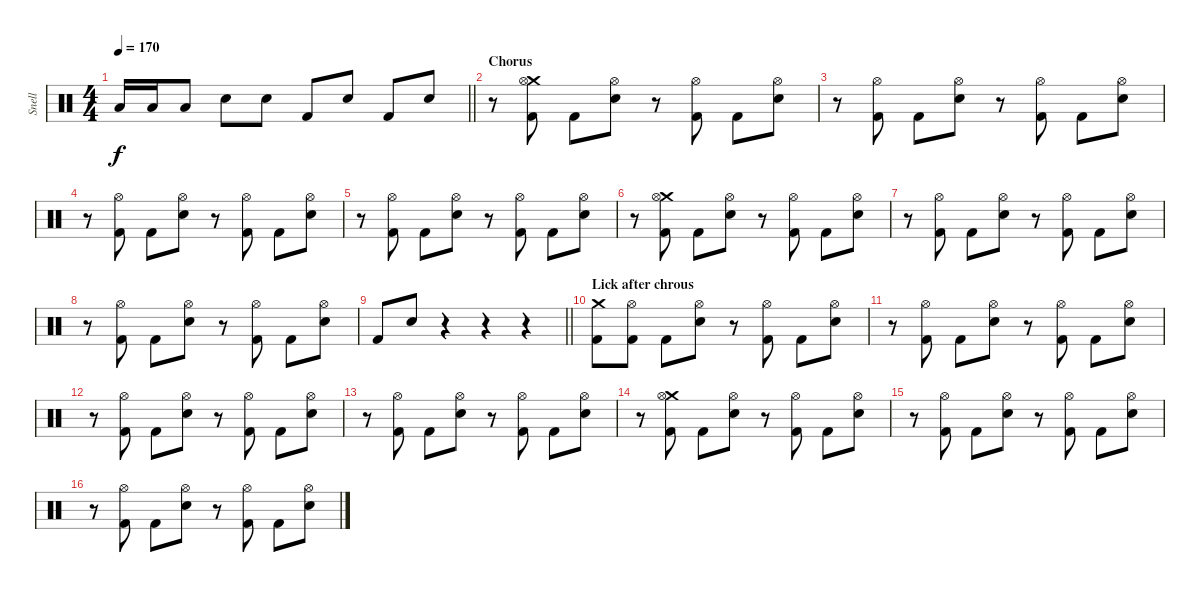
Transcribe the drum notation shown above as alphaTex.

\track ("Snell" "Snell") {instrument percussion}
\staff {score}
\articulation defaults
\ts (4 4)
\tempo 170
\clef neutral
\barLineRight lightlight
\ks c "Low Tom (hit)".16{dy f} "Low Tom (hit)".16 "Low Tom (hit)".8 "Electric Snare (hit)".8 "Electric Snare (hit)".8 "Kick (hit) 2".8 "Electric Snare (hit)".8 "Kick (hit) 2".8 "Electric Snare (hit)".8
|
\section ("" "Chorus")
r.8 ("Crash medium (hit)" "Hi-Hat (open)" "Kick (hit) 2").8 "Kick (hit) 2".8 ("Hi-Hat (open)" "Electric Snare (hit)").8 r.8 ("Hi-Hat (open)" "Kick (hit) 2").8 "Kick (hit) 2".8 ("Hi-Hat (open)" "Electric Snare (hit)").8 |
r.8 ("Hi-Hat (open)" "Kick (hit) 2").8 "Kick (hit) 2".8 ("Hi-Hat (open)" "Electric Snare (hit)").8 r.8 ("Hi-Hat (open)" "Kick (hit) 2").8 "Kick (hit) 2".8 ("Hi-Hat (open)" "Electric Snare (hit)").8 |
r.8 ("Hi-Hat (open)" "Kick (hit) 2").8 "Kick (hit) 2".8 ("Hi-Hat (open)" "Electric Snare (hit)").8 r.8 ("Hi-Hat (open)" "Kick (hit) 2").8 "Kick (hit) 2".8 ("Hi-Hat (open)" "Electric Snare (hit)").8 |
r.8 ("Hi-Hat (open)" "Kick (hit) 2").8 "Kick (hit) 2".8 ("Hi-Hat (open)" "Electric Snare (hit)").8 r.8 ("Hi-Hat (open)" "Kick (hit) 2").8 "Kick (hit) 2".8 ("Hi-Hat (open)" "Electric Snare (hit)").8 |
r.8 ("Crash medium (hit)" "Hi-Hat (open)" "Kick (hit) 2").8 "Kick (hit) 2".8 ("Hi-Hat (open)" "Electric Snare (hit)").8 r.8 ("Hi-Hat (open)" "Kick (hit) 2").8 "Kick (hit) 2".8 ("Hi-Hat (open)" "Electric Snare (hit)").8 |
r.8 ("Hi-Hat (open)" "Kick (hit) 2").8 "Kick (hit) 2".8 ("Hi-Hat (open)" "Electric Snare (hit)").8 r.8 ("Hi-Hat (open)" "Kick (hit) 2").8 "Kick (hit) 2".8 ("Hi-Hat (open)" "Electric Snare (hit)").8 |
r.8 ("Hi-Hat (open)" "Kick (hit) 2").8 "Kick (hit) 2".8 ("Hi-Hat (open)" "Electric Snare (hit)").8 r.8 ("Hi-Hat (open)" "Kick (hit) 2").8 "Kick (hit) 2".8 ("Hi-Hat (open)" "Electric Snare (hit)").8 |
\barLineRight lightlight "Kick (hit) 2".8 "Electric Snare (hit)".8
r.4 r.4 r.4 |
\section ("" "Lick after chrous")
("Crash medium (hit)" "Kick (hit) 2").8 ("Hi-Hat (open)" "Kick (hit) 2").8 "Kick (hit) 2".8 ("Hi-Hat (open)" "Electric Snare (hit)").8 r.8 ("Hi-Hat (open)" "Kick (hit) 2").8 "Kick (hit) 2".8 ("Hi-Hat (open)" "Electric Snare (hit)").8 |
r.8 ("Hi-Hat (open)" "Kick (hit) 2").8 "Kick (hit) 2".8 ("Hi-Hat (open)" "Electric Snare (hit)").8 r.8 ("Hi-Hat (open)" "Kick (hit) 2").8 "Kick (hit) 2".8 ("Hi-Hat (open)" "Electric Snare (hit)").8 |
r.8 ("Hi-Hat (open)" "Kick (hit) 2").8 "Kick (hit) 2".8 ("Hi-Hat (open)" "Electric Snare (hit)").8 r.8 ("Hi-Hat (open)" "Kick (hit) 2").8 "Kick (hit) 2".8 ("Hi-Hat (open)" "Electric Snare (hit)").8 |
r.8 ("Hi-Hat (open)" "Kick (hit) 2").8 "Kick (hit) 2".8 ("Hi-Hat (open)" "Electric Snare (hit)").8 r.8 ("Hi-Hat (open)" "Kick (hit) 2").8 "Kick (hit) 2".8 ("Hi-Hat (open)" "Electric Snare (hit)").8 |
r.8 ("Crash medium (hit)" "Hi-Hat (open)" "Kick (hit) 2").8 "Kick (hit) 2".8 ("Hi-Hat (open)" "Electric Snare (hit)").8 r.8 ("Hi-Hat (open)" "Kick (hit) 2").8 "Kick (hit) 2".8 ("Hi-Hat (open)" "Electric Snare (hit)").8 |
r.8 ("Hi-Hat (open)" "Kick (hit) 2").8 "Kick (hit) 2".8 ("Hi-Hat (open)" "Electric Snare (hit)").8 r.8 ("Hi-Hat (open)" "Kick (hit) 2").8 "Kick (hit) 2".8 ("Hi-Hat (open)" "Electric Snare (hit)").8 |
r.8 ("Hi-Hat (open)" "Kick (hit) 2").8 "Kick (hit) 2".8 ("Hi-Hat (open)" "Electric Snare (hit)").8 r.8 ("Hi-Hat (open)" "Kick (hit) 2").8 "Kick (hit) 2".8 ("Hi-Hat (open)" "Electric Snare (hit)").8
